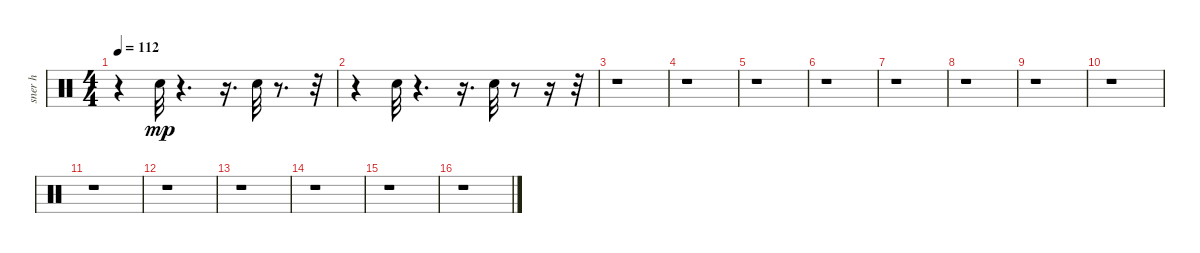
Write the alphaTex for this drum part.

\track ("sner h" "sner h") {instrument percussion}
\staff {score}
\articulation defaults
\ts (4 4)
\tempo 112
\clef neutral
\ks c
r.4{dy mp} "Electric Snare (hit)".32 r.4{d} r.16{d} "Electric Snare (hit)".32 r.8{d} r.32 |
r.4 "Electric Snare (hit)".32 r.4{d} r.16{d} "Electric Snare (hit)".32 r.8 r.16 r.32 |
r.1 |
r.1 |
r.1 |
r.1 |
r.1 |
r.1 |
r.1 |
r.1 |
r.1 |
r.1 |
r.1 |
r.1 |
r.1 |
r.1
